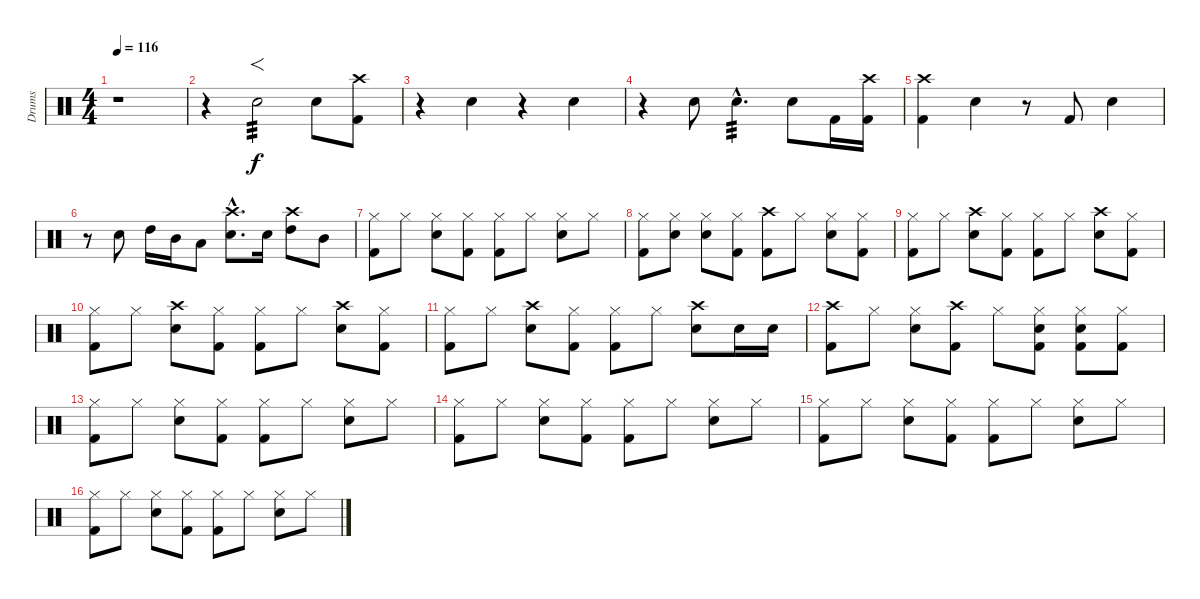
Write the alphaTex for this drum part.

\track ("Drums" "Drums") {instrument percussion}
\staff {score}
\articulation defaults
\ts (4 4)
\tempo 116
\clef neutral
\ks c
r.1{dy f} |
r.4 "Electric Snare (hit)".2{f tp 3} "Electric Snare (hit)".8 ("Crash high (hit)" "Kick (hit) 2").8 |
r.4 "Electric Snare (hit)".4 r.4 "Electric Snare (hit)".4 |
r.4 "Electric Snare (hit)".8 "Electric Snare (hit)"{hac}.4{d tp 3} "Electric Snare (hit)".8 "Kick (hit) 2".16 ("Crash high (hit)" "Kick (hit) 2").16 |
("Crash high (hit)" "Kick (hit) 2").4 "Electric Snare (hit)".4 r.8 "Kick (hit) 2".8 "Electric Snare (hit)".4 |
r.8 "Electric Snare (hit)".8 "High Tom (hit)".16 "Mid Tom (hit)".16 "Low Tom (hit)".8 ("Crash high (hit)"{hac} "Electric Snare (hit)"{hac}).8{d} "Electric Snare (hit)".16 ("Crash high (hit)" "High Tom (hit)").8 "Mid Tom (hit)".8 |
("Hi-Hat (closed)" "Kick (hit) 2").8 "Hi-Hat (closed)".8 ("Hi-Hat (closed)" "Electric Snare (hit)").8 ("Hi-Hat (closed)" "Kick (hit) 2").8 ("Hi-Hat (closed)" "Kick (hit) 2").8 "Hi-Hat (closed)".8 ("Hi-Hat (closed)" "Electric Snare (hit)").8 "Hi-Hat (closed)".8 |
("Hi-Hat (closed)" "Kick (hit) 2").8 ("Hi-Hat (closed)" "Electric Snare (hit)").8 ("Hi-Hat (closed)" "Electric Snare (hit)").8 ("Hi-Hat (closed)" "Kick (hit) 2").8 ("Crash high (hit)" "Kick (hit) 2").8 "Hi-Hat (closed)".8 ("Hi-Hat (closed)" "Electric Snare (hit)").8 ("Hi-Hat (closed)" "Kick (hit) 2").8 |
("Hi-Hat (closed)" "Kick (hit) 2").8 "Hi-Hat (closed)".8 ("Crash high (hit)" "Electric Snare (hit)").8 ("Hi-Hat (closed)" "Kick (hit) 2").8 ("Hi-Hat (closed)" "Kick (hit) 2").8 "Hi-Hat (closed)".8 ("Crash high (hit)" "Electric Snare (hit)").8 ("Hi-Hat (closed)" "Kick (hit) 2").8 |
("Hi-Hat (closed)" "Kick (hit) 2").8 "Hi-Hat (closed)".8 ("Crash high (hit)" "Electric Snare (hit)").8 ("Hi-Hat (closed)" "Kick (hit) 2").8 ("Hi-Hat (closed)" "Kick (hit) 2").8 "Hi-Hat (closed)".8 ("Crash high (hit)" "Electric Snare (hit)").8 ("Hi-Hat (closed)" "Kick (hit) 2").8 |
("Hi-Hat (closed)" "Kick (hit) 2").8 "Hi-Hat (closed)".8 ("Crash high (hit)" "Electric Snare (hit)").8 ("Hi-Hat (closed)" "Kick (hit) 2").8 ("Hi-Hat (closed)" "Kick (hit) 2").8 "Hi-Hat (closed)".8 ("Crash high (hit)" "Electric Snare (hit)").8 "Electric Snare (hit)".16 "Electric Snare (hit)".16 |
("Crash high (hit)" "Kick (hit) 2").8 "Hi-Hat (closed)".8 ("Hi-Hat (closed)" "Electric Snare (hit)").8 ("Crash high (hit)" "Kick (hit) 2").8 "Hi-Hat (closed)".8 ("Hi-Hat (closed)" "Electric Snare (hit)" "Kick (hit) 2").8 ("Hi-Hat (closed)" "Electric Snare (hit)" "Kick (hit) 2").8 ("Hi-Hat (closed)" "Kick (hit) 2").8 |
("Hi-Hat (closed)" "Kick (hit) 2").8 "Hi-Hat (closed)".8 ("Hi-Hat (closed)" "Electric Snare (hit)").8 ("Hi-Hat (closed)" "Kick (hit) 2").8 ("Hi-Hat (closed)" "Kick (hit) 2").8 "Hi-Hat (closed)".8 ("Hi-Hat (closed)" "Electric Snare (hit)").8 "Hi-Hat (closed)".8 |
("Hi-Hat (closed)" "Kick (hit) 2").8 "Hi-Hat (closed)".8 ("Hi-Hat (closed)" "Electric Snare (hit)").8 ("Hi-Hat (closed)" "Kick (hit) 2").8 ("Hi-Hat (closed)" "Kick (hit) 2").8 "Hi-Hat (closed)".8 ("Hi-Hat (closed)" "Electric Snare (hit)").8 "Hi-Hat (closed)".8 |
("Hi-Hat (closed)" "Kick (hit) 2").8 "Hi-Hat (closed)".8 ("Hi-Hat (closed)" "Electric Snare (hit)").8 ("Hi-Hat (closed)" "Kick (hit) 2").8 ("Hi-Hat (closed)" "Kick (hit) 2").8 "Hi-Hat (closed)".8 ("Hi-Hat (closed)" "Electric Snare (hit)").8 "Hi-Hat (closed)".8 |
("Hi-Hat (closed)" "Kick (hit) 2").8 "Hi-Hat (closed)".8 ("Hi-Hat (closed)" "Electric Snare (hit)").8 ("Hi-Hat (closed)" "Kick (hit) 2").8 ("Hi-Hat (closed)" "Kick (hit) 2").8 "Hi-Hat (closed)".8 ("Hi-Hat (closed)" "Electric Snare (hit)").8 "Hi-Hat (closed)".8
